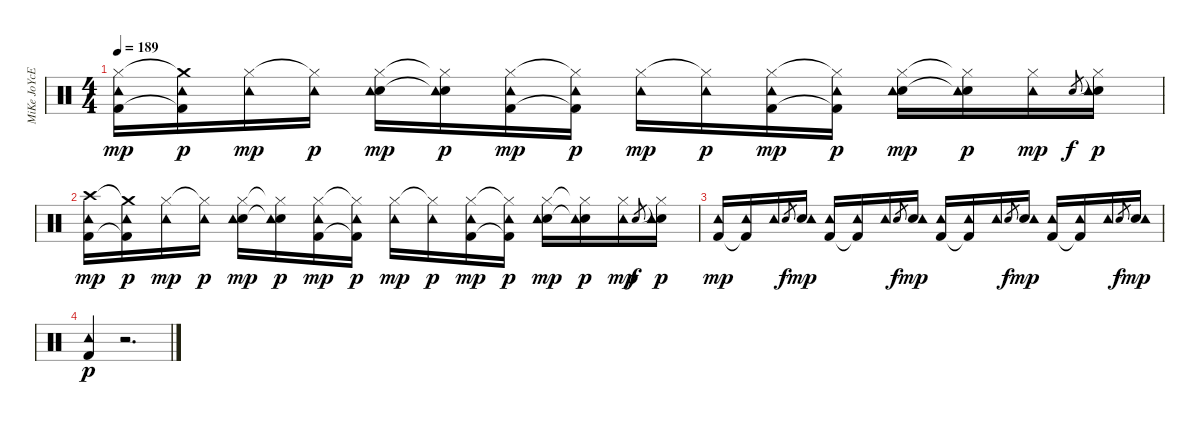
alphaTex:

\track ("MiKe JoYcE" "MiKe JoYcE") {instrument percussion}
\staff {score}
\articulation defaults
\ts (4 4)
\tempo 189
\clef neutral
\ks c
("Hi-Hat (closed)" "Tambourine (hit)" "Kick (hit) 2").16{dy mp} ("Crash medium (hit)"{t} "Tambourine (hit)" "Kick (hit) 2"{t}).16{dy p} ("Hi-Hat (closed)" "Tambourine (hit)").16{dy mp} ("Hi-Hat (closed)"{t} "Tambourine (hit)").16{dy p} ("Hi-Hat (closed)" "Electric Snare (hit)" "Tambourine (hit)").16{dy mp} ("Hi-Hat (closed)"{t} "Electric Snare (hit)"{t} "Tambourine (hit)").16{dy p} ("Hi-Hat (closed)" "Tambourine (hit)" "Kick (hit) 2").16{dy mp} ("Hi-Hat (closed)"{t} "Tambourine (hit)" "Kick (hit) 2"{t}).16{dy p} ("Hi-Hat (closed)" "Tambourine (hit)").16{dy mp} ("Hi-Hat (closed)"{t} "Tambourine (hit)").16{dy p} ("Hi-Hat (closed)" "Tambourine (hit)" "Kick (hit) 2").16{dy mp} ("Hi-Hat (closed)"{t} "Tambourine (hit)" "Kick (hit) 2"{t}).16{dy p} ("Hi-Hat (closed)" "Electric Snare (hit)" "Tambourine (hit)").16{dy mp} ("Hi-Hat (closed)"{t} "Electric Snare (hit)"{t} "Tambourine (hit)").16{dy p} ("Hi-Hat (closed)" "Tambourine (hit)").16{dy mp} "Electric Snare (hit)".8{gr dy f} ("Hi-Hat (closed)"{t} "Electric Snare (hit)" "Tambourine (hit)").16{dy p} |
("Crash high (hit)" "Tambourine (hit)" "Kick (hit) 2").16{dy mp} ("Crash medium (hit)"{t} "Tambourine (hit)" "Kick (hit) 2"{t}).16{dy p} ("Hi-Hat (closed)" "Tambourine (hit)").16{dy mp} ("Hi-Hat (closed)"{t} "Tambourine (hit)").16{dy p} ("Hi-Hat (closed)" "Electric Snare (hit)" "Tambourine (hit)").16{dy mp} ("Hi-Hat (closed)"{t} "Electric Snare (hit)"{t} "Tambourine (hit)").16{dy p} ("Hi-Hat (closed)" "Tambourine (hit)" "Kick (hit) 2").16{dy mp} ("Hi-Hat (closed)"{t} "Tambourine (hit)" "Kick (hit) 2"{t}).16{dy p} ("Hi-Hat (closed)" "Tambourine (hit)").16{dy mp} ("Hi-Hat (closed)"{t} "Tambourine (hit)").16{dy p} ("Hi-Hat (closed)" "Tambourine (hit)" "Kick (hit) 2").16{dy mp} ("Hi-Hat (closed)"{t} "Tambourine (hit)" "Kick (hit) 2"{t}).16{dy p} ("Hi-Hat (closed)" "Electric Snare (hit)" "Tambourine (hit)").16{dy mp} ("Hi-Hat (closed)"{t} "Electric Snare (hit)"{t} "Tambourine (hit)").16{dy p} ("Hi-Hat (closed)" "Tambourine (hit)").16{dy mp} "Electric Snare (hit)".8{gr dy f} ("Hi-Hat (closed)"{t} "Electric Snare (hit)" "Tambourine (hit)").16{dy p} |
("Tambourine (hit)" "Kick (hit) 2").16{dy mp} ("Tambourine (hit)" "Kick (hit) 2"{t}).16 "Tambourine (hit)".16 "Electric Snare (hit)".8{gr dy f} ("Electric Snare (hit)" "Tambourine (hit)").16{dy mp} ("Tambourine (hit)" "Kick (hit) 2").16 ("Tambourine (hit)" "Kick (hit) 2"{t}).16 "Tambourine (hit)".16 "Electric Snare (hit)".8{gr dy f} ("Electric Snare (hit)" "Tambourine (hit)").16{dy mp} ("Tambourine (hit)" "Kick (hit) 2").16 ("Tambourine (hit)" "Kick (hit) 2"{t}).16 "Tambourine (hit)".16 "Electric Snare (hit)".8{gr dy f} ("Electric Snare (hit)" "Tambourine (hit)").16{dy mp} ("Tambourine (hit)" "Kick (hit) 2").16 ("Tambourine (hit)" "Kick (hit) 2"{t}).16 "Tambourine (hit)".16 "Electric Snare (hit)".8{gr dy f} ("Electric Snare (hit)" "Tambourine (hit)").16{dy mp} |
("Tambourine (hit)" "Kick (hit) 2").4{dy p} r.2{d}
